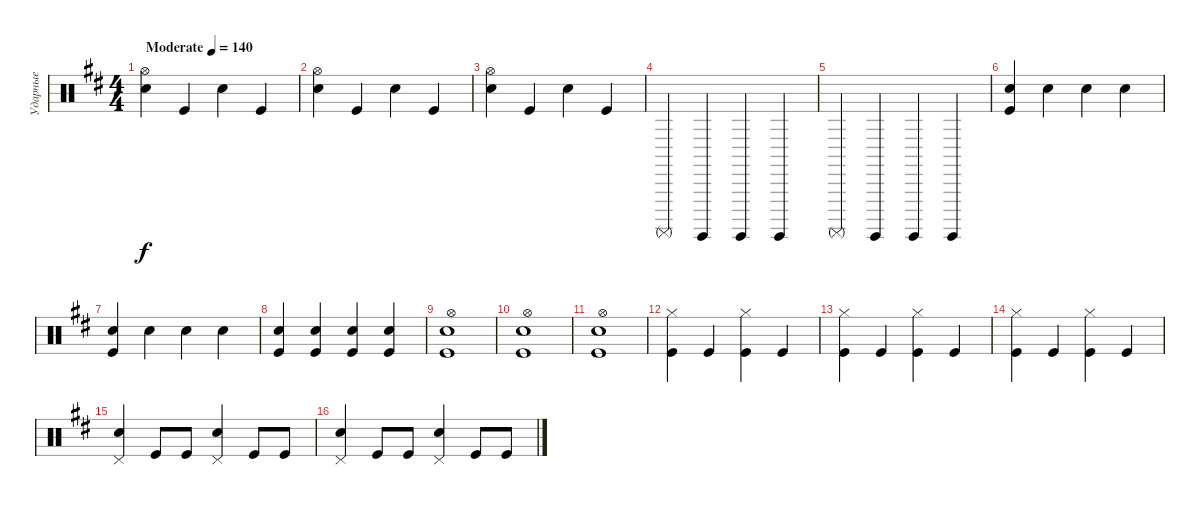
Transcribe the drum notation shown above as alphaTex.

\track ("Ударные" "Ударные") {instrument percussion}
\staff {score}
\articulation defaults
\ts (4 4)
\tempo (140 "Moderate")
\clef neutral
\ks bminor
("Snare (hit) 2" "Hi-Hat (open)").4{dy f} "Kick (hit)".4 "Snare (hit) 2".4 "Kick (hit)".4 |
("Snare (hit) 2" "Hi-Hat (open)").4 "Kick (hit)".4 "Snare (hit) 2".4 "Kick (hit)".4 |
("Snare (hit) 2" "Hi-Hat (open)").4 "Kick (hit)".4 "Snare (hit) 2".4 "Kick (hit)".4 |
"Surdo (mute)".4 "Surdo (hit)".4 "Surdo (hit)".4 "Surdo (hit)".4 |
"Surdo (mute)".4 "Surdo (hit)".4 "Surdo (hit)".4 "Surdo (hit)".4 |
("Snare (hit) 2" "Kick (hit)").4 "Snare (hit) 2".4 "Snare (hit) 2".4 "Snare (hit) 2".4 |
("Snare (hit) 2" "Kick (hit)").4 "Snare (hit) 2".4 "Snare (hit) 2".4 "Snare (hit) 2".4 |
("Snare (hit) 2" "Kick (hit)").4 ("Snare (hit) 2" "Kick (hit)").4 ("Snare (hit) 2" "Kick (hit)").4 ("Snare (hit) 2" "Kick (hit)").4 |
("Hi-Hat (open)" "Snare (hit) 2" "Kick (hit)").1 |
("Hi-Hat (open)" "Snare (hit) 2" "Kick (hit)").1 |
("Hi-Hat (open)" "Snare (hit) 2" "Kick (hit)").1 |
("Hi-Hat (closed)" "Kick (hit)").4 "Kick (hit)".4 ("Hi-Hat (closed)" "Kick (hit)").4 "Kick (hit)".4 |
("Hi-Hat (closed)" "Kick (hit)").4 "Kick (hit)".4 ("Hi-Hat (closed)" "Kick (hit)").4 "Kick (hit)".4 |
("Hi-Hat (closed)" "Kick (hit)").4 "Kick (hit)".4 ("Hi-Hat (closed)" "Kick (hit)").4 "Kick (hit)".4 |
("Pedal Hi-Hat (hit)" "Snare (hit) 2").4 "Kick (hit)".8 "Kick (hit)".8 ("Pedal Hi-Hat (hit)" "Snare (hit) 2").4 "Kick (hit)".8 "Kick (hit)".8 |
("Pedal Hi-Hat (hit)" "Snare (hit) 2").4 "Kick (hit)".8 "Kick (hit)".8 ("Pedal Hi-Hat (hit)" "Snare (hit) 2").4 "Kick (hit)".8 "Kick (hit)".8
